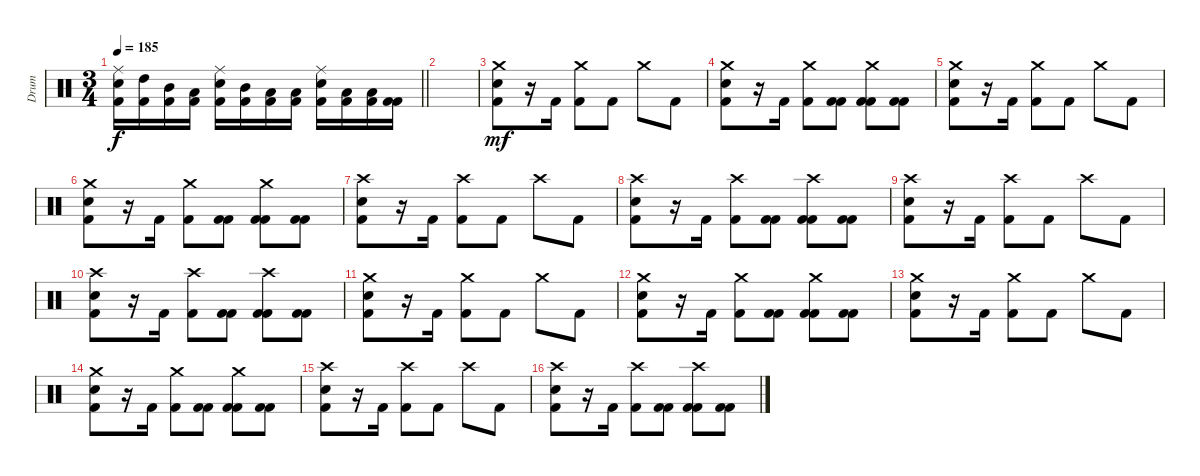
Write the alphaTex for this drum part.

\track ("Drum" "Drum") {instrument percussion}
\staff {score}
\articulation defaults
\ts (3 4)
\tempo 185
\clef neutral
\barLineRight lightlight
\ks c
("Ride (middle)" "Electric Snare (hit)" "Kick (hit) 2").16{dy f} ("High Tom (hit)" "Kick (hit) 2").16 ("Mid Tom (hit)" "Kick (hit) 2").16 ("Low Tom (hit)" "Kick (hit) 2").16 ("Ride (middle)" "Electric Snare (hit)" "Kick (hit) 2").16 ("Mid Tom (hit)" "Kick (hit) 2").16 ("Low Tom (hit)" "Kick (hit) 2").16 ("Low Floor Tom (hit)" "Kick (hit) 2").16 ("Ride (middle)" "Electric Snare (hit)" "Kick (hit) 2").16 ("Low Tom (hit)" "Kick (hit) 2").16 ("Low Floor Tom (hit)" "Kick (hit) 2").16 ("Kick (hit) 2" "Kick (hit) 2").16 |
|
("Crash medium (hit)" "Electric Snare (hit)" "Kick (hit) 2").8{dy mf} r.16 "Kick (hit) 2".16 ("Crash medium (hit)" "Kick (hit) 2").8 "Kick (hit) 2".8 "Crash medium (hit)".8 "Kick (hit) 2".8 |
("Crash medium (hit)" "Electric Snare (hit)" "Kick (hit) 2").8 r.16 "Kick (hit) 2".16 ("Crash medium (hit)" "Kick (hit) 2").8 ("Kick (hit) 2" "Kick (hit) 2").8 ("Crash medium (hit)" "Kick (hit) 2" "Kick (hit) 2").8 ("Kick (hit) 2" "Kick (hit) 2").8 |
("Crash medium (hit)" "Electric Snare (hit)" "Kick (hit) 2").8 r.16 "Kick (hit) 2".16 ("Crash medium (hit)" "Kick (hit) 2").8 "Kick (hit) 2".8 "Crash medium (hit)".8 "Kick (hit) 2".8 |
("Crash medium (hit)" "Electric Snare (hit)" "Kick (hit) 2").8 r.16 "Kick (hit) 2".16 ("Crash medium (hit)" "Kick (hit) 2").8 ("Kick (hit) 2" "Kick (hit) 2").8 ("Crash medium (hit)" "Kick (hit) 2" "Kick (hit) 2").8 ("Kick (hit) 2" "Kick (hit) 2").8 |
("Crash high (hit)" "Electric Snare (hit)" "Kick (hit) 2").8 r.16 "Kick (hit) 2".16 ("Crash high (hit)" "Kick (hit) 2").8 "Kick (hit) 2".8 "Crash high (hit)".8 "Kick (hit) 2".8 |
("Crash high (hit)" "Electric Snare (hit)" "Kick (hit) 2").8 r.16 "Kick (hit) 2".16 ("Crash high (hit)" "Kick (hit) 2").8 ("Kick (hit) 2" "Kick (hit) 2").8 ("Crash high (hit)" "Kick (hit) 2" "Kick (hit) 2").8 ("Kick (hit) 2" "Kick (hit) 2").8 |
("Crash high (hit)" "Electric Snare (hit)" "Kick (hit) 2").8 r.16 "Kick (hit) 2".16 ("Crash high (hit)" "Kick (hit) 2").8 "Kick (hit) 2".8 "Crash high (hit)".8 "Kick (hit) 2".8 |
("Crash high (hit)" "Electric Snare (hit)" "Kick (hit) 2").8 r.16 "Kick (hit) 2".16 ("Crash high (hit)" "Kick (hit) 2").8 ("Kick (hit) 2" "Kick (hit) 2").8 ("Crash high (hit)" "Kick (hit) 2" "Kick (hit) 2").8 ("Kick (hit) 2" "Kick (hit) 2").8 |
("Crash medium (hit)" "Electric Snare (hit)" "Kick (hit) 2").8 r.16 "Kick (hit) 2".16 ("Crash medium (hit)" "Kick (hit) 2").8 "Kick (hit) 2".8 "Crash medium (hit)".8 "Kick (hit) 2".8 |
("Crash medium (hit)" "Electric Snare (hit)" "Kick (hit) 2").8 r.16 "Kick (hit) 2".16 ("Crash medium (hit)" "Kick (hit) 2").8 ("Kick (hit) 2" "Kick (hit) 2").8 ("Crash medium (hit)" "Kick (hit) 2" "Kick (hit) 2").8 ("Kick (hit) 2" "Kick (hit) 2").8 |
("Crash medium (hit)" "Electric Snare (hit)" "Kick (hit) 2").8 r.16 "Kick (hit) 2".16 ("Crash medium (hit)" "Kick (hit) 2").8 "Kick (hit) 2".8 "Crash medium (hit)".8 "Kick (hit) 2".8 |
("Crash medium (hit)" "Electric Snare (hit)" "Kick (hit) 2").8 r.16 "Kick (hit) 2".16 ("Crash medium (hit)" "Kick (hit) 2").8 ("Kick (hit) 2" "Kick (hit) 2").8 ("Crash medium (hit)" "Kick (hit) 2" "Kick (hit) 2").8 ("Kick (hit) 2" "Kick (hit) 2").8 |
("Crash high (hit)" "Electric Snare (hit)" "Kick (hit) 2").8 r.16 "Kick (hit) 2".16 ("Crash high (hit)" "Kick (hit) 2").8 "Kick (hit) 2".8 "Crash high (hit)".8 "Kick (hit) 2".8 |
("Crash high (hit)" "Electric Snare (hit)" "Kick (hit) 2").8 r.16 "Kick (hit) 2".16 ("Crash high (hit)" "Kick (hit) 2").8 ("Kick (hit) 2" "Kick (hit) 2").8 ("Crash high (hit)" "Kick (hit) 2" "Kick (hit) 2").8 ("Kick (hit) 2" "Kick (hit) 2").8
